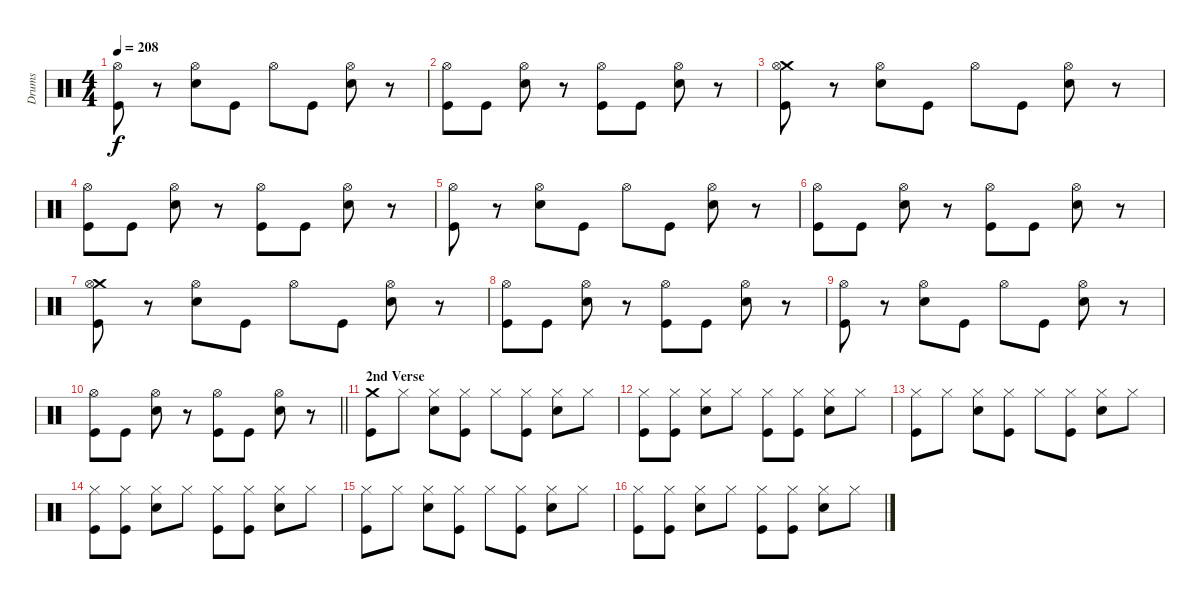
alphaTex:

\track ("Drums" "Drums") {instrument percussion}
\staff {score}
\articulation defaults
\ts (4 4)
\tempo 208
\clef neutral
\ks c
("Hi-Hat (open)" "Kick (hit)").8{dy f} r.8 ("Hi-Hat (open)" "Electric Snare (hit)").8 "Kick (hit)".8 "Hi-Hat (open)".8 "Kick (hit)".8 ("Hi-Hat (open)" "Electric Snare (hit)").8 r.8 |
("Hi-Hat (open)" "Kick (hit)").8 "Kick (hit)".8 ("Hi-Hat (open)" "Electric Snare (hit)").8 r.8 ("Hi-Hat (open)" "Kick (hit)").8 "Kick (hit)".8 ("Hi-Hat (open)" "Electric Snare (hit)").8 r.8 |
("Crash medium (hit)" "Hi-Hat (open)" "Kick (hit)").8 r.8 ("Hi-Hat (open)" "Electric Snare (hit)").8 "Kick (hit)".8 "Hi-Hat (open)".8 "Kick (hit)".8 ("Hi-Hat (open)" "Electric Snare (hit)").8 r.8 |
("Hi-Hat (open)" "Kick (hit)").8 "Kick (hit)".8 ("Hi-Hat (open)" "Electric Snare (hit)").8 r.8 ("Hi-Hat (open)" "Kick (hit)").8 "Kick (hit)".8 ("Hi-Hat (open)" "Electric Snare (hit)").8 r.8 |
("Hi-Hat (open)" "Kick (hit)").8 r.8 ("Hi-Hat (open)" "Electric Snare (hit)").8 "Kick (hit)".8 "Hi-Hat (open)".8 "Kick (hit)".8 ("Hi-Hat (open)" "Electric Snare (hit)").8 r.8 |
("Hi-Hat (open)" "Kick (hit)").8 "Kick (hit)".8 ("Hi-Hat (open)" "Electric Snare (hit)").8 r.8 ("Hi-Hat (open)" "Kick (hit)").8 "Kick (hit)".8 ("Hi-Hat (open)" "Electric Snare (hit)").8 r.8 |
("Crash medium (hit)" "Hi-Hat (open)" "Kick (hit)").8 r.8 ("Hi-Hat (open)" "Electric Snare (hit)").8 "Kick (hit)".8 "Hi-Hat (open)".8 "Kick (hit)".8 ("Hi-Hat (open)" "Electric Snare (hit)").8 r.8 |
("Hi-Hat (open)" "Kick (hit)").8 "Kick (hit)".8 ("Hi-Hat (open)" "Electric Snare (hit)").8 r.8 ("Hi-Hat (open)" "Kick (hit)").8 "Kick (hit)".8 ("Hi-Hat (open)" "Electric Snare (hit)").8 r.8 |
("Hi-Hat (open)" "Kick (hit)").8 r.8 ("Hi-Hat (open)" "Electric Snare (hit)").8 "Kick (hit)".8 "Hi-Hat (open)".8 "Kick (hit)".8 ("Hi-Hat (open)" "Electric Snare (hit)").8 r.8 |
\barLineRight lightlight
("Hi-Hat (open)" "Kick (hit)").8 "Kick (hit)".8 ("Hi-Hat (open)" "Electric Snare (hit)").8 r.8 ("Hi-Hat (open)" "Kick (hit)").8 "Kick (hit)".8 ("Hi-Hat (open)" "Electric Snare (hit)").8 r.8 |
\section ("" "2nd Verse")
("Crash medium (hit)" "Kick (hit)").8 "Hi-Hat (closed)".8 ("Hi-Hat (closed)" "Electric Snare (hit)").8 ("Hi-Hat (closed)" "Kick (hit)").8 "Hi-Hat (closed)".8 ("Hi-Hat (closed)" "Kick (hit)").8 ("Hi-Hat (closed)" "Electric Snare (hit)").8 "Hi-Hat (closed)".8 |
("Hi-Hat (closed)" "Kick (hit)").8 ("Hi-Hat (closed)" "Kick (hit)").8 ("Hi-Hat (closed)" "Electric Snare (hit)").8 "Hi-Hat (closed)".8 ("Hi-Hat (closed)" "Kick (hit)").8 ("Hi-Hat (closed)" "Kick (hit)").8 ("Hi-Hat (closed)" "Electric Snare (hit)").8 "Hi-Hat (closed)".8 |
("Hi-Hat (closed)" "Kick (hit)").8 "Hi-Hat (closed)".8 ("Hi-Hat (closed)" "Electric Snare (hit)").8 ("Hi-Hat (closed)" "Kick (hit)").8 "Hi-Hat (closed)".8 ("Hi-Hat (closed)" "Kick (hit)").8 ("Hi-Hat (closed)" "Electric Snare (hit)").8 "Hi-Hat (closed)".8 |
("Hi-Hat (closed)" "Kick (hit)").8 ("Hi-Hat (closed)" "Kick (hit)").8 ("Hi-Hat (closed)" "Electric Snare (hit)").8 "Hi-Hat (closed)".8 ("Hi-Hat (closed)" "Kick (hit)").8 ("Hi-Hat (closed)" "Kick (hit)").8 ("Hi-Hat (closed)" "Electric Snare (hit)").8 "Hi-Hat (closed)".8 |
("Hi-Hat (closed)" "Kick (hit)").8 "Hi-Hat (closed)".8 ("Hi-Hat (closed)" "Electric Snare (hit)").8 ("Hi-Hat (closed)" "Kick (hit)").8 "Hi-Hat (closed)".8 ("Hi-Hat (closed)" "Kick (hit)").8 ("Hi-Hat (closed)" "Electric Snare (hit)").8 "Hi-Hat (closed)".8 |
("Hi-Hat (closed)" "Kick (hit)").8 ("Hi-Hat (closed)" "Kick (hit)").8 ("Hi-Hat (closed)" "Electric Snare (hit)").8 "Hi-Hat (closed)".8 ("Hi-Hat (closed)" "Kick (hit)").8 ("Hi-Hat (closed)" "Kick (hit)").8 ("Hi-Hat (closed)" "Electric Snare (hit)").8 "Hi-Hat (closed)".8
